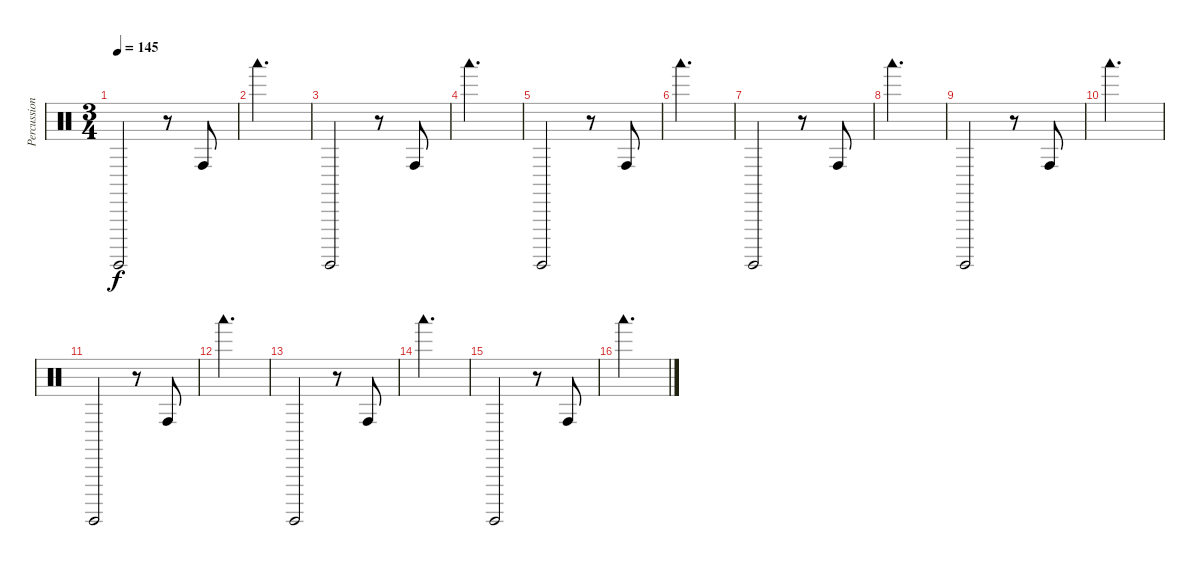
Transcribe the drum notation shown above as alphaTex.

\track ("Percussion" "Percussion") {instrument percussion}
\staff {score}
\articulation defaults
\ts (3 4)
\tempo 145
\clef neutral
\ks c "Surdo (hit)".2{dy f}
r.8 "Conga high (hit)".8 |
"Woodblock low (hit)".2{d} |
"Surdo (hit)".2 r.8 "Conga high (hit)".8 |
"Woodblock low (hit)".2{d} |
"Surdo (hit)".2 r.8 "Conga high (hit)".8 |
"Woodblock low (hit)".2{d} |
"Surdo (hit)".2 r.8 "Conga high (hit)".8 |
"Woodblock low (hit)".2{d} |
"Surdo (hit)".2 r.8 "Conga high (hit)".8 |
"Woodblock low (hit)".2{d} |
"Surdo (hit)".2 r.8 "Conga high (hit)".8 |
"Woodblock low (hit)".2{d} |
"Surdo (hit)".2 r.8 "Conga high (hit)".8 |
"Woodblock low (hit)".2{d} |
"Surdo (hit)".2 r.8 "Conga high (hit)".8 |
"Woodblock low (hit)".2{d}
